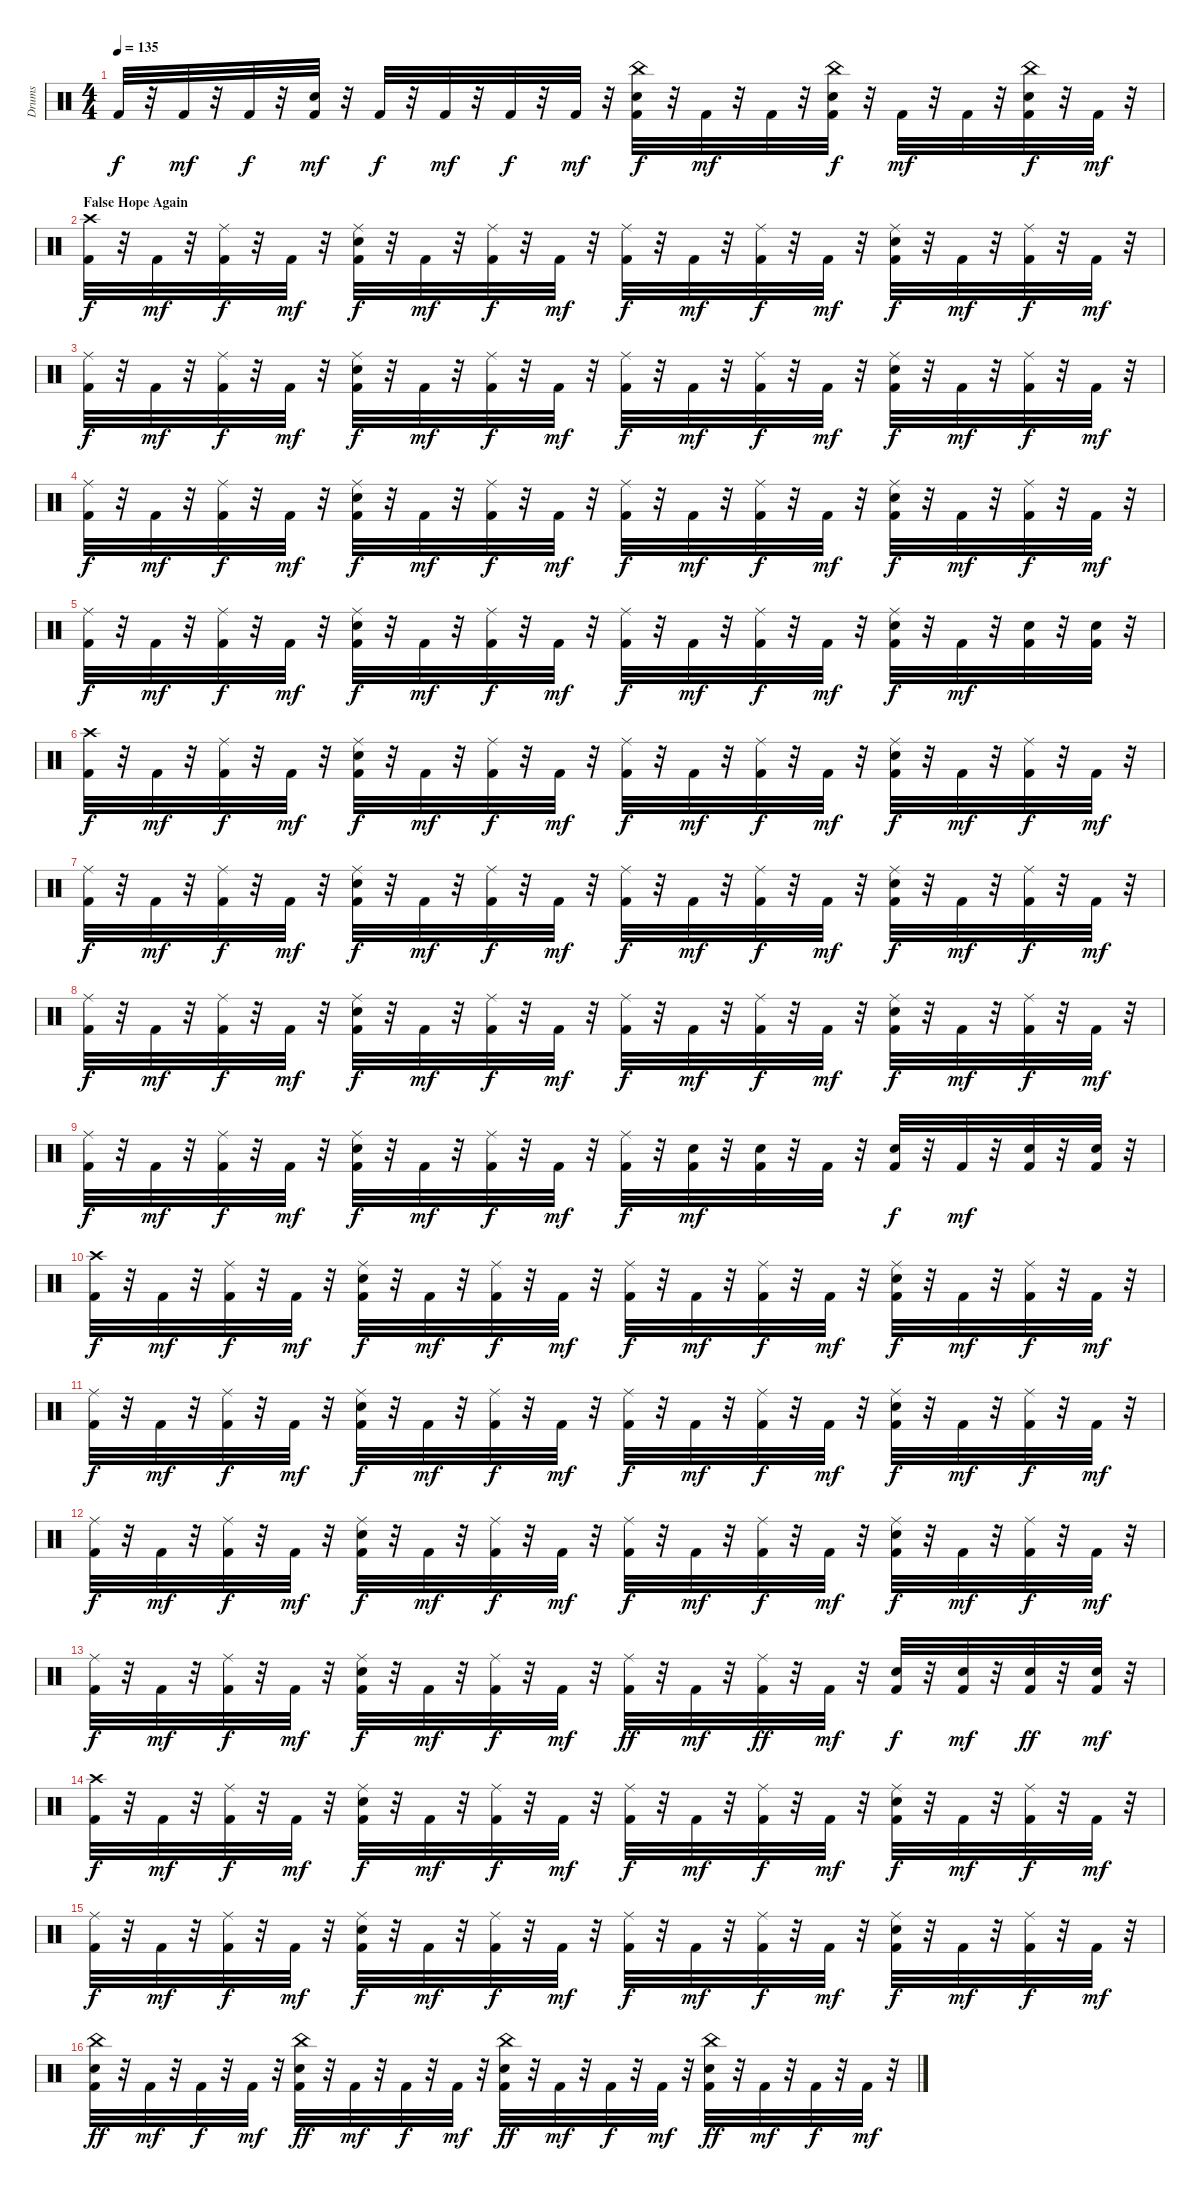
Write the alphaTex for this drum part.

\track ("Drums" "Drums") {instrument percussion}
\staff {score}
\articulation defaults
\ts (4 4)
\tempo 135
\clef neutral
\ks c "Kick (hit) 2".32{dy f}
r.32 "Kick (hit) 2".32{dy mf} r.32 "Kick (hit) 2".32{dy f} r.32 ("Snare (hit) 2" "Kick (hit) 2").32{dy mf} r.32 "Kick (hit) 2".32{dy f} r.32 "Kick (hit) 2".32{dy mf} r.32 "Kick (hit) 2".32{dy f} r.32 "Kick (hit) 2".32{dy mf} r.32 ("Kick (hit) 2" "Snare (hit) 2" "China (hit)").32{dy f} r.32 "Kick (hit) 2".32{dy mf} r.32 "Kick (hit) 2".32 r.32 ("Kick (hit) 2" "Snare (hit) 2" "China (hit)").32{dy f} r.32 "Kick (hit) 2".32{dy mf} r.32 "Kick (hit) 2".32 r.32 ("Kick (hit) 2" "Snare (hit) 2" "China (hit)").32{dy f} r.32 "Kick (hit) 2".32{dy mf} r.32 |
\section ("" "False Hope Again")
("Crash high (hit)" "Kick (hit) 2").32{dy f} r.32 "Kick (hit) 2".32{dy mf} r.32 ("Ride (middle)" "Kick (hit) 2").32{dy f} r.32 "Kick (hit) 2".32{dy mf} r.32 ("Kick (hit) 2" "Ride (middle)" "Snare (hit) 2").32{dy f} r.32 "Kick (hit) 2".32{dy mf} r.32 ("Ride (middle)" "Kick (hit) 2").32{dy f} r.32 "Kick (hit) 2".32{dy mf} r.32 ("Ride (middle)" "Kick (hit) 2").32{dy f} r.32 "Kick (hit) 2".32{dy mf} r.32 ("Ride (middle)" "Kick (hit) 2").32{dy f} r.32 "Kick (hit) 2".32{dy mf} r.32 ("Kick (hit) 2" "Ride (middle)" "Snare (hit) 2").32{dy f} r.32 "Kick (hit) 2".32{dy mf} r.32 ("Ride (middle)" "Kick (hit) 2").32{dy f} r.32 "Kick (hit) 2".32{dy mf} r.32 |
("Ride (middle)" "Kick (hit) 2").32{dy f} r.32 "Kick (hit) 2".32{dy mf} r.32 ("Ride (middle)" "Kick (hit) 2").32{dy f} r.32 "Kick (hit) 2".32{dy mf} r.32 ("Kick (hit) 2" "Ride (middle)" "Snare (hit) 2").32{dy f} r.32 "Kick (hit) 2".32{dy mf} r.32 ("Ride (middle)" "Kick (hit) 2").32{dy f} r.32 "Kick (hit) 2".32{dy mf} r.32 ("Ride (middle)" "Kick (hit) 2").32{dy f} r.32 "Kick (hit) 2".32{dy mf} r.32 ("Ride (middle)" "Kick (hit) 2").32{dy f} r.32 "Kick (hit) 2".32{dy mf} r.32 ("Kick (hit) 2" "Ride (middle)" "Snare (hit) 2").32{dy f} r.32 "Kick (hit) 2".32{dy mf} r.32 ("Ride (middle)" "Kick (hit) 2").32{dy f} r.32 "Kick (hit) 2".32{dy mf} r.32 |
("Ride (middle)" "Kick (hit) 2").32{dy f} r.32 "Kick (hit) 2".32{dy mf} r.32 ("Ride (middle)" "Kick (hit) 2").32{dy f} r.32 "Kick (hit) 2".32{dy mf} r.32 ("Kick (hit) 2" "Ride (middle)" "Snare (hit) 2").32{dy f} r.32 "Kick (hit) 2".32{dy mf} r.32 ("Ride (middle)" "Kick (hit) 2").32{dy f} r.32 "Kick (hit) 2".32{dy mf} r.32 ("Ride (middle)" "Kick (hit) 2").32{dy f} r.32 "Kick (hit) 2".32{dy mf} r.32 ("Ride (middle)" "Kick (hit) 2").32{dy f} r.32 "Kick (hit) 2".32{dy mf} r.32 ("Kick (hit) 2" "Ride (middle)" "Snare (hit) 2").32{dy f} r.32 "Kick (hit) 2".32{dy mf} r.32 ("Ride (middle)" "Kick (hit) 2").32{dy f} r.32 "Kick (hit) 2".32{dy mf} r.32 |
("Ride (middle)" "Kick (hit) 2").32{dy f} r.32 "Kick (hit) 2".32{dy mf} r.32 ("Ride (middle)" "Kick (hit) 2").32{dy f} r.32 "Kick (hit) 2".32{dy mf} r.32 ("Kick (hit) 2" "Ride (middle)" "Snare (hit) 2").32{dy f} r.32 "Kick (hit) 2".32{dy mf} r.32 ("Ride (middle)" "Kick (hit) 2").32{dy f} r.32 "Kick (hit) 2".32{dy mf} r.32 ("Ride (middle)" "Kick (hit) 2").32{dy f} r.32 "Kick (hit) 2".32{dy mf} r.32 ("Ride (middle)" "Kick (hit) 2").32{dy f} r.32 "Kick (hit) 2".32{dy mf} r.32 ("Kick (hit) 2" "Ride (middle)" "Snare (hit) 2").32{dy f} r.32 "Kick (hit) 2".32{dy mf} r.32 ("Snare (hit) 2" "Kick (hit) 2").32 r.32 ("Snare (hit) 2" "Kick (hit) 2").32 r.32 |
("Crash high (hit)" "Kick (hit) 2").32{dy f} r.32 "Kick (hit) 2".32{dy mf} r.32 ("Ride (middle)" "Kick (hit) 2").32{dy f} r.32 "Kick (hit) 2".32{dy mf} r.32 ("Kick (hit) 2" "Ride (middle)" "Snare (hit) 2").32{dy f} r.32 "Kick (hit) 2".32{dy mf} r.32 ("Ride (middle)" "Kick (hit) 2").32{dy f} r.32 "Kick (hit) 2".32{dy mf} r.32 ("Ride (middle)" "Kick (hit) 2").32{dy f} r.32 "Kick (hit) 2".32{dy mf} r.32 ("Ride (middle)" "Kick (hit) 2").32{dy f} r.32 "Kick (hit) 2".32{dy mf} r.32 ("Kick (hit) 2" "Ride (middle)" "Snare (hit) 2").32{dy f} r.32 "Kick (hit) 2".32{dy mf} r.32 ("Ride (middle)" "Kick (hit) 2").32{dy f} r.32 "Kick (hit) 2".32{dy mf} r.32 |
("Ride (middle)" "Kick (hit) 2").32{dy f} r.32 "Kick (hit) 2".32{dy mf} r.32 ("Ride (middle)" "Kick (hit) 2").32{dy f} r.32 "Kick (hit) 2".32{dy mf} r.32 ("Kick (hit) 2" "Ride (middle)" "Snare (hit) 2").32{dy f} r.32 "Kick (hit) 2".32{dy mf} r.32 ("Ride (middle)" "Kick (hit) 2").32{dy f} r.32 "Kick (hit) 2".32{dy mf} r.32 ("Ride (middle)" "Kick (hit) 2").32{dy f} r.32 "Kick (hit) 2".32{dy mf} r.32 ("Ride (middle)" "Kick (hit) 2").32{dy f} r.32 "Kick (hit) 2".32{dy mf} r.32 ("Kick (hit) 2" "Ride (middle)" "Snare (hit) 2").32{dy f} r.32 "Kick (hit) 2".32{dy mf} r.32 ("Ride (middle)" "Kick (hit) 2").32{dy f} r.32 "Kick (hit) 2".32{dy mf} r.32 |
("Ride (middle)" "Kick (hit) 2").32{dy f} r.32 "Kick (hit) 2".32{dy mf} r.32 ("Ride (middle)" "Kick (hit) 2").32{dy f} r.32 "Kick (hit) 2".32{dy mf} r.32 ("Kick (hit) 2" "Ride (middle)" "Snare (hit) 2").32{dy f} r.32 "Kick (hit) 2".32{dy mf} r.32 ("Ride (middle)" "Kick (hit) 2").32{dy f} r.32 "Kick (hit) 2".32{dy mf} r.32 ("Ride (middle)" "Kick (hit) 2").32{dy f} r.32 "Kick (hit) 2".32{dy mf} r.32 ("Ride (middle)" "Kick (hit) 2").32{dy f} r.32 "Kick (hit) 2".32{dy mf} r.32 ("Kick (hit) 2" "Ride (middle)" "Snare (hit) 2").32{dy f} r.32 "Kick (hit) 2".32{dy mf} r.32 ("Ride (middle)" "Kick (hit) 2").32{dy f} r.32 "Kick (hit) 2".32{dy mf} r.32 |
("Ride (middle)" "Kick (hit) 2").32{dy f} r.32 "Kick (hit) 2".32{dy mf} r.32 ("Ride (middle)" "Kick (hit) 2").32{dy f} r.32 "Kick (hit) 2".32{dy mf} r.32 ("Kick (hit) 2" "Ride (middle)" "Snare (hit) 2").32{dy f} r.32 "Kick (hit) 2".32{dy mf} r.32 ("Ride (middle)" "Kick (hit) 2").32{dy f} r.32 "Kick (hit) 2".32{dy mf} r.32 ("Ride (middle)" "Kick (hit) 2").32{dy f} r.32 ("Snare (hit) 2" "Kick (hit) 2").32{dy mf} r.32 ("Snare (hit) 2" "Kick (hit) 2").32 r.32 "Kick (hit) 2".32 r.32 ("Kick (hit) 2" "Snare (hit) 2").32{dy f} r.32 "Kick (hit) 2".32{dy mf} r.32 ("Snare (hit) 2" "Kick (hit) 2").32 r.32 ("Snare (hit) 2" "Kick (hit) 2").32 r.32 |
("Crash high (hit)" "Kick (hit) 2").32{dy f} r.32 "Kick (hit) 2".32{dy mf} r.32 ("Ride (middle)" "Kick (hit) 2").32{dy f} r.32 "Kick (hit) 2".32{dy mf} r.32 ("Kick (hit) 2" "Ride (middle)" "Snare (hit) 2").32{dy f} r.32 "Kick (hit) 2".32{dy mf} r.32 ("Ride (middle)" "Kick (hit) 2").32{dy f} r.32 "Kick (hit) 2".32{dy mf} r.32 ("Ride (middle)" "Kick (hit) 2").32{dy f} r.32 "Kick (hit) 2".32{dy mf} r.32 ("Ride (middle)" "Kick (hit) 2").32{dy f} r.32 "Kick (hit) 2".32{dy mf} r.32 ("Kick (hit) 2" "Ride (middle)" "Snare (hit) 2").32{dy f} r.32 "Kick (hit) 2".32{dy mf} r.32 ("Ride (middle)" "Kick (hit) 2").32{dy f} r.32 "Kick (hit) 2".32{dy mf} r.32 |
("Ride (middle)" "Kick (hit) 2").32{dy f} r.32 "Kick (hit) 2".32{dy mf} r.32 ("Ride (middle)" "Kick (hit) 2").32{dy f} r.32 "Kick (hit) 2".32{dy mf} r.32 ("Kick (hit) 2" "Ride (middle)" "Snare (hit) 2").32{dy f} r.32 "Kick (hit) 2".32{dy mf} r.32 ("Ride (middle)" "Kick (hit) 2").32{dy f} r.32 "Kick (hit) 2".32{dy mf} r.32 ("Ride (middle)" "Kick (hit) 2").32{dy f} r.32 "Kick (hit) 2".32{dy mf} r.32 ("Ride (middle)" "Kick (hit) 2").32{dy f} r.32 "Kick (hit) 2".32{dy mf} r.32 ("Kick (hit) 2" "Ride (middle)" "Snare (hit) 2").32{dy f} r.32 "Kick (hit) 2".32{dy mf} r.32 ("Ride (middle)" "Kick (hit) 2").32{dy f} r.32 "Kick (hit) 2".32{dy mf} r.32 |
("Ride (middle)" "Kick (hit) 2").32{dy f} r.32 "Kick (hit) 2".32{dy mf} r.32 ("Ride (middle)" "Kick (hit) 2").32{dy f} r.32 "Kick (hit) 2".32{dy mf} r.32 ("Kick (hit) 2" "Ride (middle)" "Snare (hit) 2").32{dy f} r.32 "Kick (hit) 2".32{dy mf} r.32 ("Ride (middle)" "Kick (hit) 2").32{dy f} r.32 "Kick (hit) 2".32{dy mf} r.32 ("Ride (middle)" "Kick (hit) 2").32{dy f} r.32 "Kick (hit) 2".32{dy mf} r.32 ("Ride (middle)" "Kick (hit) 2").32{dy f} r.32 "Kick (hit) 2".32{dy mf} r.32 ("Kick (hit) 2" "Ride (middle)" "Snare (hit) 2").32{dy f} r.32 "Kick (hit) 2".32{dy mf} r.32 ("Ride (middle)" "Kick (hit) 2").32{dy f} r.32 "Kick (hit) 2".32{dy mf} r.32 |
("Ride (middle)" "Kick (hit) 2").32{dy f} r.32 "Kick (hit) 2".32{dy mf} r.32 ("Ride (middle)" "Kick (hit) 2").32{dy f} r.32 "Kick (hit) 2".32{dy mf} r.32 ("Kick (hit) 2" "Ride (middle)" "Snare (hit) 2").32{dy f} r.32 "Kick (hit) 2".32{dy mf} r.32 ("Ride (middle)" "Kick (hit) 2").32{dy f} r.32 "Kick (hit) 2".32{dy mf} r.32 ("Ride (middle)" "Kick (hit) 2").32{dy ff} r.32 "Kick (hit) 2".32{dy mf} r.32 ("Ride (middle)" "Kick (hit) 2").32{dy ff} r.32 "Kick (hit) 2".32{dy mf} r.32 ("Snare (hit) 2" "Kick (hit) 2").32{dy f} r.32 ("Snare (hit) 2" "Kick (hit) 2").32{dy mf} r.32 ("Snare (hit) 2" "Kick (hit) 2").32{dy ff} r.32 ("Snare (hit) 2" "Kick (hit) 2").32{dy mf} r.32 |
("Crash high (hit)" "Kick (hit) 2").32{dy f} r.32 "Kick (hit) 2".32{dy mf} r.32 ("Ride (middle)" "Kick (hit) 2").32{dy f} r.32 "Kick (hit) 2".32{dy mf} r.32 ("Kick (hit) 2" "Ride (middle)" "Snare (hit) 2").32{dy f} r.32 "Kick (hit) 2".32{dy mf} r.32 ("Ride (middle)" "Kick (hit) 2").32{dy f} r.32 "Kick (hit) 2".32{dy mf} r.32 ("Ride (middle)" "Kick (hit) 2").32{dy f} r.32 "Kick (hit) 2".32{dy mf} r.32 ("Ride (middle)" "Kick (hit) 2").32{dy f} r.32 "Kick (hit) 2".32{dy mf} r.32 ("Kick (hit) 2" "Ride (middle)" "Snare (hit) 2").32{dy f} r.32 "Kick (hit) 2".32{dy mf} r.32 ("Ride (middle)" "Kick (hit) 2").32{dy f} r.32 "Kick (hit) 2".32{dy mf} r.32 |
("Ride (middle)" "Kick (hit) 2").32{dy f} r.32 "Kick (hit) 2".32{dy mf} r.32 ("Ride (middle)" "Kick (hit) 2").32{dy f} r.32 "Kick (hit) 2".32{dy mf} r.32 ("Kick (hit) 2" "Ride (middle)" "Snare (hit) 2").32{dy f} r.32 "Kick (hit) 2".32{dy mf} r.32 ("Ride (middle)" "Kick (hit) 2").32{dy f} r.32 "Kick (hit) 2".32{dy mf} r.32 ("Ride (middle)" "Kick (hit) 2").32{dy f} r.32 "Kick (hit) 2".32{dy mf} r.32 ("Ride (middle)" "Kick (hit) 2").32{dy f} r.32 "Kick (hit) 2".32{dy mf} r.32 ("Kick (hit) 2" "Ride (middle)" "Snare (hit) 2").32{dy f} r.32 "Kick (hit) 2".32{dy mf} r.32 ("Ride (middle)" "Kick (hit) 2").32{dy f} r.32 "Kick (hit) 2".32{dy mf} r.32 |
("Snare (hit) 2" "China (hit)" "Kick (hit) 2").32{dy ff} r.32 "Kick (hit) 2".32{dy mf} r.32 "Kick (hit) 2".32{dy f} r.32 "Kick (hit) 2".32{dy mf} r.32 ("Kick (hit) 2" "China (hit)" "Snare (hit) 2").32{dy ff} r.32 "Kick (hit) 2".32{dy mf} r.32 "Kick (hit) 2".32{dy f} r.32 "Kick (hit) 2".32{dy mf} r.32 ("Snare (hit) 2" "China (hit)" "Kick (hit) 2").32{dy ff} r.32 "Kick (hit) 2".32{dy mf} r.32 "Kick (hit) 2".32{dy f} r.32 "Kick (hit) 2".32{dy mf} r.32 ("Kick (hit) 2" "China (hit)" "Snare (hit) 2").32{dy ff} r.32 "Kick (hit) 2".32{dy mf} r.32 "Kick (hit) 2".32{dy f} r.32 "Kick (hit) 2".32{dy mf} r.32
